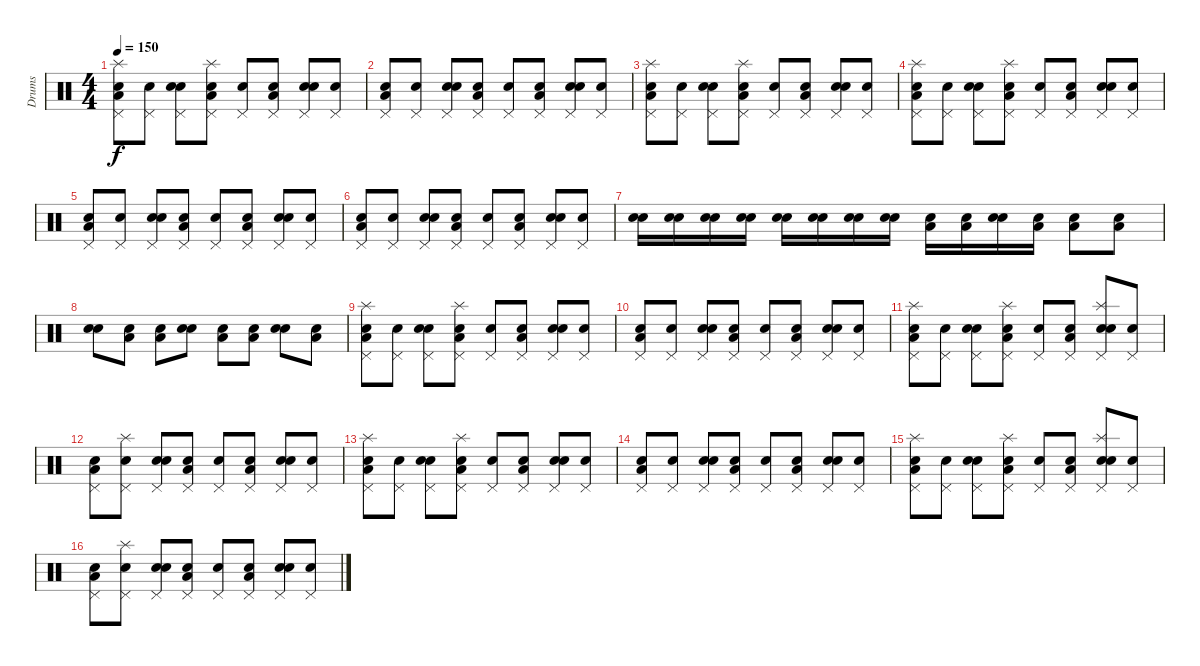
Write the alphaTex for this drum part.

\track ("Drums" "Drums") {instrument percussion}
\staff {score}
\articulation defaults
\ts (4 4)
\tempo 150
\clef neutral
\ks c
("Snare (hit)" "Low Floor Tom (hit)" "Pedal Hi-Hat (hit)" "Splash (hit)").8{dy f} ("Snare (hit)" "Pedal Hi-Hat (hit)").8 ("Snare (hit)" "Electric Snare (hit)" "Pedal Hi-Hat (hit)").8 ("Snare (hit)" "Low Floor Tom (hit)" "Pedal Hi-Hat (hit)" "Splash (hit)").8 ("Snare (hit)" "Pedal Hi-Hat (hit)").8 ("Snare (hit)" "Low Floor Tom (hit)" "Pedal Hi-Hat (hit)").8 ("Snare (hit)" "Electric Snare (hit)" "Pedal Hi-Hat (hit)").8 ("Snare (hit)" "Pedal Hi-Hat (hit)").8 |
("Snare (hit)" "Low Floor Tom (hit)" "Pedal Hi-Hat (hit)").8 ("Snare (hit)" "Pedal Hi-Hat (hit)").8 ("Snare (hit)" "Electric Snare (hit)" "Pedal Hi-Hat (hit)").8 ("Snare (hit)" "Low Floor Tom (hit)" "Pedal Hi-Hat (hit)").8 ("Snare (hit)" "Pedal Hi-Hat (hit)").8 ("Snare (hit)" "Low Floor Tom (hit)" "Pedal Hi-Hat (hit)").8 ("Snare (hit)" "Electric Snare (hit)" "Pedal Hi-Hat (hit)").8 ("Snare (hit)" "Pedal Hi-Hat (hit)").8 |
("Snare (hit)" "Low Floor Tom (hit)" "Pedal Hi-Hat (hit)" "Splash (hit)").8 ("Snare (hit)" "Pedal Hi-Hat (hit)").8 ("Snare (hit)" "Electric Snare (hit)" "Pedal Hi-Hat (hit)").8 ("Snare (hit)" "Low Floor Tom (hit)" "Pedal Hi-Hat (hit)" "Splash (hit)").8 ("Snare (hit)" "Pedal Hi-Hat (hit)").8 ("Snare (hit)" "Low Floor Tom (hit)" "Pedal Hi-Hat (hit)").8 ("Snare (hit)" "Electric Snare (hit)" "Pedal Hi-Hat (hit)").8 ("Snare (hit)" "Pedal Hi-Hat (hit)").8 |
("Snare (hit)" "Low Floor Tom (hit)" "Pedal Hi-Hat (hit)" "Splash (hit)").8 ("Snare (hit)" "Pedal Hi-Hat (hit)").8 ("Snare (hit)" "Electric Snare (hit)" "Pedal Hi-Hat (hit)").8 ("Snare (hit)" "Low Floor Tom (hit)" "Pedal Hi-Hat (hit)" "Splash (hit)").8 ("Snare (hit)" "Pedal Hi-Hat (hit)").8 ("Snare (hit)" "Low Floor Tom (hit)" "Pedal Hi-Hat (hit)").8 ("Snare (hit)" "Electric Snare (hit)" "Pedal Hi-Hat (hit)").8 ("Snare (hit)" "Pedal Hi-Hat (hit)").8 |
("Snare (hit)" "Low Floor Tom (hit)" "Pedal Hi-Hat (hit)").8 ("Snare (hit)" "Pedal Hi-Hat (hit)").8 ("Snare (hit)" "Electric Snare (hit)" "Pedal Hi-Hat (hit)").8 ("Snare (hit)" "Low Floor Tom (hit)" "Pedal Hi-Hat (hit)").8 ("Snare (hit)" "Pedal Hi-Hat (hit)").8 ("Snare (hit)" "Low Floor Tom (hit)" "Pedal Hi-Hat (hit)").8 ("Snare (hit)" "Electric Snare (hit)" "Pedal Hi-Hat (hit)").8 ("Snare (hit)" "Pedal Hi-Hat (hit)").8 |
("Snare (hit)" "Low Floor Tom (hit)" "Pedal Hi-Hat (hit)").8 ("Snare (hit)" "Pedal Hi-Hat (hit)").8 ("Snare (hit)" "Electric Snare (hit)" "Pedal Hi-Hat (hit)").8 ("Snare (hit)" "Low Floor Tom (hit)" "Pedal Hi-Hat (hit)").8 ("Snare (hit)" "Pedal Hi-Hat (hit)").8 ("Snare (hit)" "Low Floor Tom (hit)" "Pedal Hi-Hat (hit)").8 ("Snare (hit)" "Electric Snare (hit)" "Pedal Hi-Hat (hit)").8 ("Snare (hit)" "Pedal Hi-Hat (hit)").8 |
("Snare (hit)" "Electric Snare (hit)").16 ("Snare (hit)" "Electric Snare (hit)").16 ("Snare (hit)" "Electric Snare (hit)").16 ("Snare (hit)" "Electric Snare (hit)").16 ("Snare (hit)" "Electric Snare (hit)").16 ("Snare (hit)" "Electric Snare (hit)").16 ("Snare (hit)" "Electric Snare (hit)").16 ("Snare (hit)" "Electric Snare (hit)").16 ("Snare (hit)" "Low Floor Tom (hit)").16 ("Snare (hit)" "Low Floor Tom (hit)").16 ("Snare (hit)" "Electric Snare (hit)").16 ("Snare (hit)" "Low Floor Tom (hit)").16 ("Snare (hit)" "Low Floor Tom (hit)").8 ("Snare (hit)" "Low Floor Tom (hit)").8 |
("Snare (hit)" "Electric Snare (hit)").8 ("Snare (hit)" "Low Floor Tom (hit)").8 ("Snare (hit)" "Low Floor Tom (hit)").8 ("Snare (hit)" "Electric Snare (hit)").8 ("Snare (hit)" "Low Floor Tom (hit)").8 ("Snare (hit)" "Low Floor Tom (hit)").8 ("Snare (hit)" "Electric Snare (hit)").8 ("Snare (hit)" "Low Floor Tom (hit)").8 |
("Snare (hit)" "Low Floor Tom (hit)" "Pedal Hi-Hat (hit)" "Splash (hit)").8 ("Snare (hit)" "Pedal Hi-Hat (hit)").8 ("Snare (hit)" "Electric Snare (hit)" "Pedal Hi-Hat (hit)").8 ("Snare (hit)" "Low Floor Tom (hit)" "Pedal Hi-Hat (hit)" "Splash (hit)").8 ("Snare (hit)" "Pedal Hi-Hat (hit)").8 ("Snare (hit)" "Low Floor Tom (hit)" "Pedal Hi-Hat (hit)").8 ("Snare (hit)" "Electric Snare (hit)" "Pedal Hi-Hat (hit)").8 ("Snare (hit)" "Pedal Hi-Hat (hit)").8 |
("Snare (hit)" "Low Floor Tom (hit)" "Pedal Hi-Hat (hit)").8 ("Snare (hit)" "Pedal Hi-Hat (hit)").8 ("Snare (hit)" "Electric Snare (hit)" "Pedal Hi-Hat (hit)").8 ("Snare (hit)" "Low Floor Tom (hit)" "Pedal Hi-Hat (hit)").8 ("Snare (hit)" "Pedal Hi-Hat (hit)").8 ("Snare (hit)" "Low Floor Tom (hit)" "Pedal Hi-Hat (hit)").8 ("Snare (hit)" "Electric Snare (hit)" "Pedal Hi-Hat (hit)").8 ("Snare (hit)" "Pedal Hi-Hat (hit)").8 |
("Snare (hit)" "Low Floor Tom (hit)" "Pedal Hi-Hat (hit)" "Splash (hit)").8 ("Snare (hit)" "Pedal Hi-Hat (hit)").8 ("Snare (hit)" "Electric Snare (hit)" "Pedal Hi-Hat (hit)").8 ("Snare (hit)" "Low Floor Tom (hit)" "Pedal Hi-Hat (hit)" "Splash (hit)").8 ("Snare (hit)" "Pedal Hi-Hat (hit)").8 ("Snare (hit)" "Low Floor Tom (hit)" "Pedal Hi-Hat (hit)").8 ("Snare (hit)" "Electric Snare (hit)" "Pedal Hi-Hat (hit)" "Splash (hit)").8 ("Snare (hit)" "Pedal Hi-Hat (hit)").8 |
("Snare (hit)" "Low Floor Tom (hit)" "Pedal Hi-Hat (hit)").8 ("Snare (hit)" "Pedal Hi-Hat (hit)" "Splash (hit)").8 ("Snare (hit)" "Electric Snare (hit)" "Pedal Hi-Hat (hit)").8 ("Snare (hit)" "Low Floor Tom (hit)" "Pedal Hi-Hat (hit)").8 ("Snare (hit)" "Pedal Hi-Hat (hit)").8 ("Snare (hit)" "Low Floor Tom (hit)" "Pedal Hi-Hat (hit)").8 ("Snare (hit)" "Electric Snare (hit)" "Pedal Hi-Hat (hit)").8 ("Snare (hit)" "Pedal Hi-Hat (hit)").8 |
("Snare (hit)" "Low Floor Tom (hit)" "Pedal Hi-Hat (hit)" "Splash (hit)").8 ("Snare (hit)" "Pedal Hi-Hat (hit)").8 ("Snare (hit)" "Electric Snare (hit)" "Pedal Hi-Hat (hit)").8 ("Snare (hit)" "Low Floor Tom (hit)" "Pedal Hi-Hat (hit)" "Splash (hit)").8 ("Snare (hit)" "Pedal Hi-Hat (hit)").8 ("Snare (hit)" "Low Floor Tom (hit)" "Pedal Hi-Hat (hit)").8 ("Snare (hit)" "Electric Snare (hit)" "Pedal Hi-Hat (hit)").8 ("Snare (hit)" "Pedal Hi-Hat (hit)").8 |
("Snare (hit)" "Low Floor Tom (hit)" "Pedal Hi-Hat (hit)").8 ("Snare (hit)" "Pedal Hi-Hat (hit)").8 ("Snare (hit)" "Electric Snare (hit)" "Pedal Hi-Hat (hit)").8 ("Snare (hit)" "Low Floor Tom (hit)" "Pedal Hi-Hat (hit)").8 ("Snare (hit)" "Pedal Hi-Hat (hit)").8 ("Snare (hit)" "Low Floor Tom (hit)" "Pedal Hi-Hat (hit)").8 ("Snare (hit)" "Electric Snare (hit)" "Pedal Hi-Hat (hit)").8 ("Snare (hit)" "Pedal Hi-Hat (hit)").8 |
("Snare (hit)" "Low Floor Tom (hit)" "Pedal Hi-Hat (hit)" "Splash (hit)").8 ("Snare (hit)" "Pedal Hi-Hat (hit)").8 ("Snare (hit)" "Electric Snare (hit)" "Pedal Hi-Hat (hit)").8 ("Snare (hit)" "Low Floor Tom (hit)" "Pedal Hi-Hat (hit)" "Splash (hit)").8 ("Snare (hit)" "Pedal Hi-Hat (hit)").8 ("Snare (hit)" "Low Floor Tom (hit)" "Pedal Hi-Hat (hit)").8 ("Snare (hit)" "Electric Snare (hit)" "Pedal Hi-Hat (hit)" "Splash (hit)").8 ("Snare (hit)" "Pedal Hi-Hat (hit)").8 |
("Snare (hit)" "Low Floor Tom (hit)" "Pedal Hi-Hat (hit)").8 ("Snare (hit)" "Pedal Hi-Hat (hit)" "Splash (hit)").8 ("Snare (hit)" "Electric Snare (hit)" "Pedal Hi-Hat (hit)").8 ("Snare (hit)" "Low Floor Tom (hit)" "Pedal Hi-Hat (hit)").8 ("Snare (hit)" "Pedal Hi-Hat (hit)").8 ("Snare (hit)" "Low Floor Tom (hit)" "Pedal Hi-Hat (hit)").8 ("Snare (hit)" "Electric Snare (hit)" "Pedal Hi-Hat (hit)").8 ("Snare (hit)" "Pedal Hi-Hat (hit)").8
